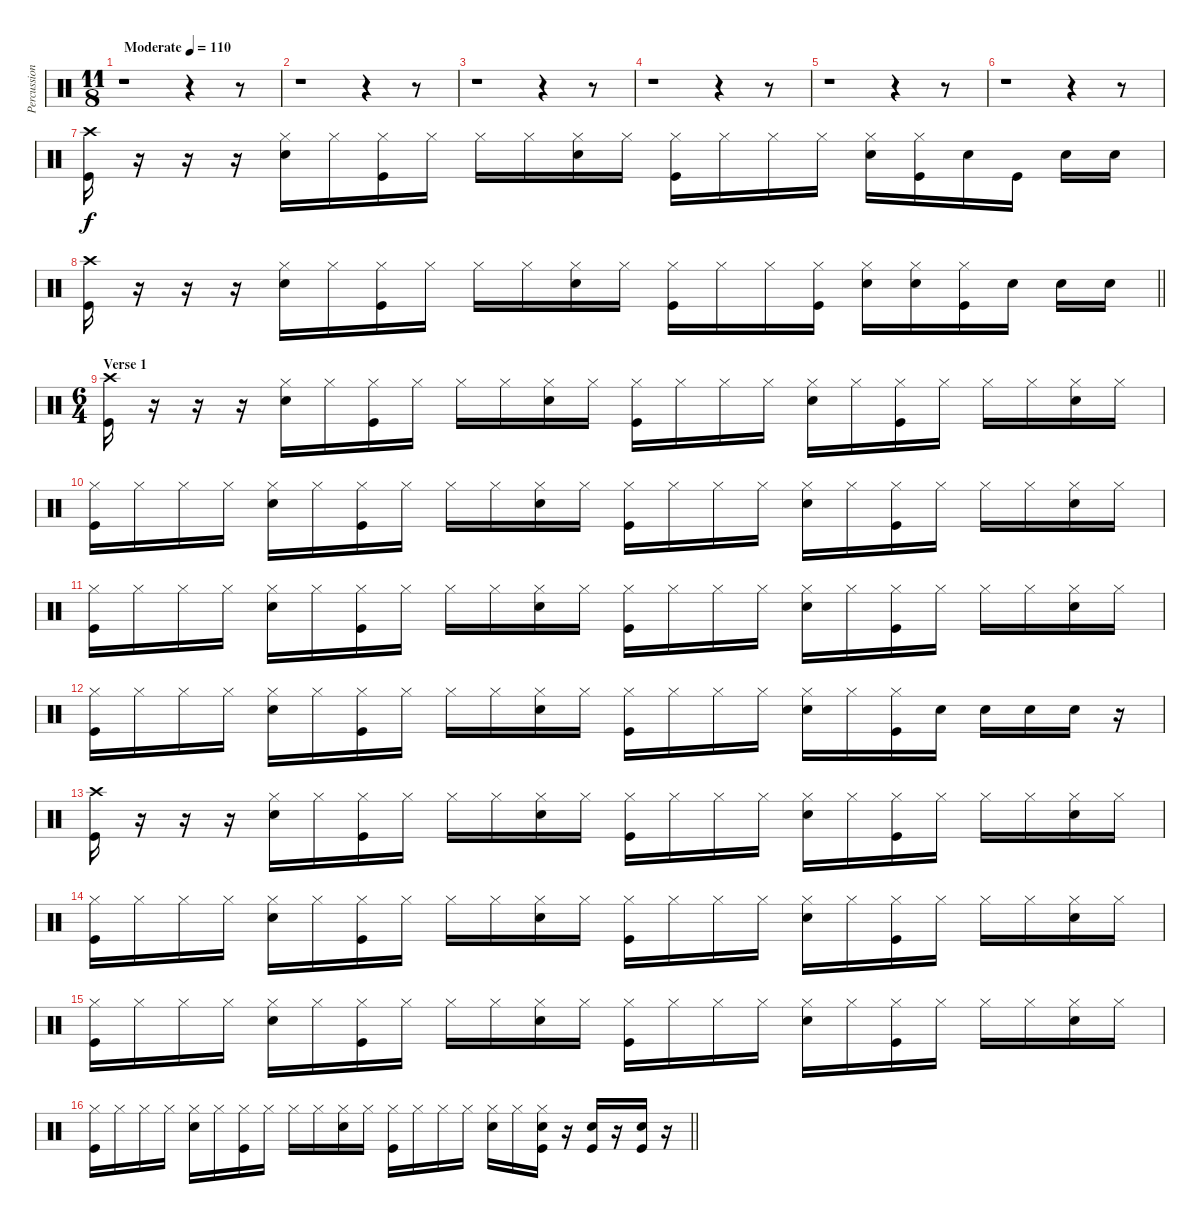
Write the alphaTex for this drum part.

\track ("Percussion 2" "Percussion") {instrument percussion}
\staff {score}
\articulation defaults
\ts (11 8)
\tempo (110 "Moderate")
\clef neutral
\ks c
r.1{dy f} r.4 r.8 |
r.1 r.4 r.8 |
r.1 r.4 r.8 |
r.1 r.4 r.8 |
r.1 r.4 r.8 |
r.1 r.4 r.8 |
("Crash high (hit)" "Kick (hit)").16 r.16 r.16 r.16 ("Hi-Hat (closed)" "Snare (hit) 2").16 "Hi-Hat (closed)".16 ("Hi-Hat (closed)" "Kick (hit)").16 "Hi-Hat (closed)".16 "Hi-Hat (closed)".16 "Hi-Hat (closed)".16 ("Hi-Hat (closed)" "Snare (hit) 2").16 "Hi-Hat (closed)".16 ("Hi-Hat (closed)" "Kick (hit)").16 "Hi-Hat (closed)".16 "Hi-Hat (closed)".16 "Hi-Hat (closed)".16 ("Hi-Hat (closed)" "Snare (hit) 2").16 ("Hi-Hat (closed)" "Kick (hit)").16 "Snare (hit) 2".16 "Kick (hit)".16 "Snare (hit) 2".16 "Snare (hit) 2".16 |
\barLineRight lightlight
("Crash high (hit)" "Kick (hit)").16 r.16 r.16 r.16 ("Hi-Hat (closed)" "Snare (hit) 2").16 "Hi-Hat (closed)".16 ("Hi-Hat (closed)" "Kick (hit)").16 "Hi-Hat (closed)".16 "Hi-Hat (closed)".16 "Hi-Hat (closed)".16 ("Hi-Hat (closed)" "Snare (hit) 2").16 "Hi-Hat (closed)".16 ("Hi-Hat (closed)" "Kick (hit)").16 "Hi-Hat (closed)".16 "Hi-Hat (closed)".16 ("Hi-Hat (closed)" "Kick (hit)").16 ("Hi-Hat (closed)" "Snare (hit) 2").16 ("Hi-Hat (closed)" "Snare (hit) 2").16 ("Hi-Hat (closed)" "Kick (hit)").16 "Snare (hit) 2".16 "Snare (hit) 2".16 "Snare (hit) 2".16 |
\ts (6 4)
\section ("" "Verse 1")
("Crash high (hit)" "Kick (hit)").16 r.16 r.16 r.16 ("Hi-Hat (closed)" "Snare (hit) 2").16 "Hi-Hat (closed)".16 ("Hi-Hat (closed)" "Kick (hit)").16 "Hi-Hat (closed)".16 "Hi-Hat (closed)".16 "Hi-Hat (closed)".16 ("Hi-Hat (closed)" "Snare (hit) 2").16 "Hi-Hat (closed)".16 ("Hi-Hat (closed)" "Kick (hit)").16 "Hi-Hat (closed)".16 "Hi-Hat (closed)".16 "Hi-Hat (closed)".16 ("Hi-Hat (closed)" "Snare (hit) 2").16 "Hi-Hat (closed)".16 ("Hi-Hat (closed)" "Kick (hit)").16 "Hi-Hat (closed)".16 "Hi-Hat (closed)".16 "Hi-Hat (closed)".16 ("Hi-Hat (closed)" "Snare (hit) 2").16 "Hi-Hat (closed)".16 |
("Hi-Hat (closed)" "Kick (hit)").16 "Hi-Hat (closed)".16 "Hi-Hat (closed)".16 "Hi-Hat (closed)".16 ("Hi-Hat (closed)" "Snare (hit) 2").16 "Hi-Hat (closed)".16 ("Hi-Hat (closed)" "Kick (hit)").16 "Hi-Hat (closed)".16 "Hi-Hat (closed)".16 "Hi-Hat (closed)".16 ("Hi-Hat (closed)" "Snare (hit) 2").16 "Hi-Hat (closed)".16 ("Hi-Hat (closed)" "Kick (hit)").16 "Hi-Hat (closed)".16 "Hi-Hat (closed)".16 "Hi-Hat (closed)".16 ("Hi-Hat (closed)" "Snare (hit) 2").16 "Hi-Hat (closed)".16 ("Hi-Hat (closed)" "Kick (hit)").16 "Hi-Hat (closed)".16 "Hi-Hat (closed)".16 "Hi-Hat (closed)".16 ("Hi-Hat (closed)" "Snare (hit) 2").16 "Hi-Hat (closed)".16 |
("Hi-Hat (closed)" "Kick (hit)").16 "Hi-Hat (closed)".16 "Hi-Hat (closed)".16 "Hi-Hat (closed)".16 ("Hi-Hat (closed)" "Snare (hit) 2").16 "Hi-Hat (closed)".16 ("Hi-Hat (closed)" "Kick (hit)").16 "Hi-Hat (closed)".16 "Hi-Hat (closed)".16 "Hi-Hat (closed)".16 ("Hi-Hat (closed)" "Snare (hit) 2").16 "Hi-Hat (closed)".16 ("Hi-Hat (closed)" "Kick (hit)").16 "Hi-Hat (closed)".16 "Hi-Hat (closed)".16 "Hi-Hat (closed)".16 ("Hi-Hat (closed)" "Snare (hit) 2").16 "Hi-Hat (closed)".16 ("Hi-Hat (closed)" "Kick (hit)").16 "Hi-Hat (closed)".16 "Hi-Hat (closed)".16 "Hi-Hat (closed)".16 ("Hi-Hat (closed)" "Snare (hit) 2").16 "Hi-Hat (closed)".16 |
("Hi-Hat (closed)" "Kick (hit)").16 "Hi-Hat (closed)".16 "Hi-Hat (closed)".16 "Hi-Hat (closed)".16 ("Hi-Hat (closed)" "Snare (hit) 2").16 "Hi-Hat (closed)".16 ("Hi-Hat (closed)" "Kick (hit)").16 "Hi-Hat (closed)".16 "Hi-Hat (closed)".16 "Hi-Hat (closed)".16 ("Hi-Hat (closed)" "Snare (hit) 2").16 "Hi-Hat (closed)".16 ("Hi-Hat (closed)" "Kick (hit)").16 "Hi-Hat (closed)".16 "Hi-Hat (closed)".16 "Hi-Hat (closed)".16 ("Hi-Hat (closed)" "Snare (hit) 2").16 "Hi-Hat (closed)".16 ("Hi-Hat (closed)" "Kick (hit)").16 "Snare (hit) 2".16 "Snare (hit) 2".16 "Snare (hit) 2".16 "Snare (hit) 2".16 r.16 |
("Crash high (hit)" "Kick (hit)").16 r.16 r.16 r.16 ("Hi-Hat (closed)" "Snare (hit) 2").16 "Hi-Hat (closed)".16 ("Hi-Hat (closed)" "Kick (hit)").16 "Hi-Hat (closed)".16 "Hi-Hat (closed)".16 "Hi-Hat (closed)".16 ("Hi-Hat (closed)" "Snare (hit) 2").16 "Hi-Hat (closed)".16 ("Hi-Hat (closed)" "Kick (hit)").16 "Hi-Hat (closed)".16 "Hi-Hat (closed)".16 "Hi-Hat (closed)".16 ("Hi-Hat (closed)" "Snare (hit) 2").16 "Hi-Hat (closed)".16 ("Hi-Hat (closed)" "Kick (hit)").16 "Hi-Hat (closed)".16 "Hi-Hat (closed)".16 "Hi-Hat (closed)".16 ("Hi-Hat (closed)" "Snare (hit) 2").16 "Hi-Hat (closed)".16 |
("Hi-Hat (closed)" "Kick (hit)").16 "Hi-Hat (closed)".16 "Hi-Hat (closed)".16 "Hi-Hat (closed)".16 ("Hi-Hat (closed)" "Snare (hit) 2").16 "Hi-Hat (closed)".16 ("Hi-Hat (closed)" "Kick (hit)").16 "Hi-Hat (closed)".16 "Hi-Hat (closed)".16 "Hi-Hat (closed)".16 ("Hi-Hat (closed)" "Snare (hit) 2").16 "Hi-Hat (closed)".16 ("Hi-Hat (closed)" "Kick (hit)").16 "Hi-Hat (closed)".16 "Hi-Hat (closed)".16 "Hi-Hat (closed)".16 ("Hi-Hat (closed)" "Snare (hit) 2").16 "Hi-Hat (closed)".16 ("Hi-Hat (closed)" "Kick (hit)").16 "Hi-Hat (closed)".16 "Hi-Hat (closed)".16 "Hi-Hat (closed)".16 ("Hi-Hat (closed)" "Snare (hit) 2").16 "Hi-Hat (closed)".16 |
("Hi-Hat (closed)" "Kick (hit)").16 "Hi-Hat (closed)".16 "Hi-Hat (closed)".16 "Hi-Hat (closed)".16 ("Hi-Hat (closed)" "Snare (hit) 2").16 "Hi-Hat (closed)".16 ("Hi-Hat (closed)" "Kick (hit)").16 "Hi-Hat (closed)".16 "Hi-Hat (closed)".16 "Hi-Hat (closed)".16 ("Hi-Hat (closed)" "Snare (hit) 2").16 "Hi-Hat (closed)".16 ("Hi-Hat (closed)" "Kick (hit)").16 "Hi-Hat (closed)".16 "Hi-Hat (closed)".16 "Hi-Hat (closed)".16 ("Hi-Hat (closed)" "Snare (hit) 2").16 "Hi-Hat (closed)".16 ("Hi-Hat (closed)" "Kick (hit)").16 "Hi-Hat (closed)".16 "Hi-Hat (closed)".16 "Hi-Hat (closed)".16 ("Hi-Hat (closed)" "Snare (hit) 2").16 "Hi-Hat (closed)".16 |
\barLineRight lightlight
("Hi-Hat (closed)" "Kick (hit)").16 "Hi-Hat (closed)".16 "Hi-Hat (closed)".16 "Hi-Hat (closed)".16 ("Hi-Hat (closed)" "Snare (hit) 2").16 "Hi-Hat (closed)".16 ("Hi-Hat (closed)" "Kick (hit)").16 "Hi-Hat (closed)".16 "Hi-Hat (closed)".16 "Hi-Hat (closed)".16 ("Hi-Hat (closed)" "Snare (hit) 2").16 "Hi-Hat (closed)".16 ("Hi-Hat (closed)" "Kick (hit)").16 "Hi-Hat (closed)".16 "Hi-Hat (closed)".16 "Hi-Hat (closed)".16 ("Hi-Hat (closed)" "Snare (hit) 2").16 "Hi-Hat (closed)".16 ("Hi-Hat (closed)" "Snare (hit) 2" "Kick (hit)").16 r.16 ("Snare (hit) 2" "Kick (hit)").16 r.16 ("Snare (hit) 2" "Kick (hit)").16 r.16
